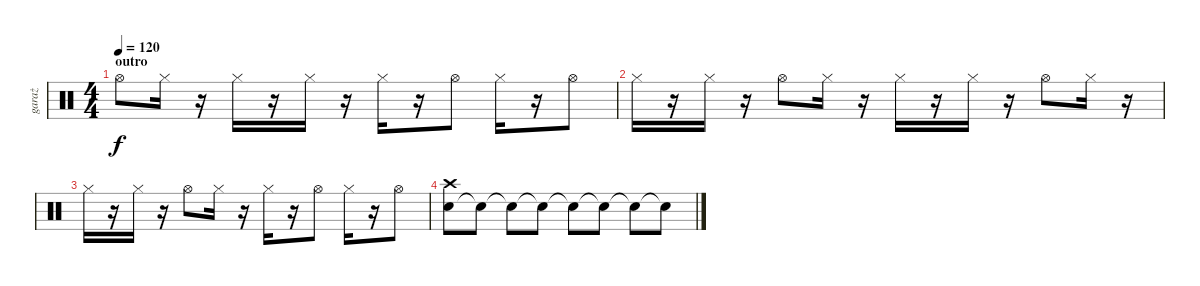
\track ("garaż" "garaż") {instrument percussion}
\staff {score}
\articulation defaults
\ts (4 4)
\section ("" "outro")
\tempo 120
\clef neutral
\ks c "Hi-Hat (open)".8{dy f} "Hi-Hat (closed)".16
r.16 "Hi-Hat (closed)".16 r.16 "Hi-Hat (closed)".16 r.16 "Hi-Hat (closed)".16 r.16 "Hi-Hat (open)".8 "Hi-Hat (closed)".16 r.16 "Hi-Hat (open)".8 |
"Hi-Hat (closed)".16 r.16 "Hi-Hat (closed)".16 r.16 "Hi-Hat (open)".8 "Hi-Hat (closed)".16 r.16 "Hi-Hat (closed)".16 r.16 "Hi-Hat (closed)".16 r.16 "Hi-Hat (open)".8 "Hi-Hat (closed)".16 r.16 |
"Hi-Hat (closed)".16 r.16 "Hi-Hat (closed)".16 r.16 "Hi-Hat (open)".8 "Hi-Hat (closed)".16 r.16 "Hi-Hat (closed)".16 r.16 "Hi-Hat (open)".8 "Hi-Hat (closed)".16 r.16 "Hi-Hat (open)".8 |
("Snare (hit) 2" "Crash high (hit)").8 "Snare (hit)"{t}.8 "Snare (hit)"{t}.8 "Snare (hit)"{t}.8 "Snare (hit)"{t}.8 "Snare (hit)"{t}.8 "Snare (hit)"{t}.8 "Snare (hit)"{t}.8
